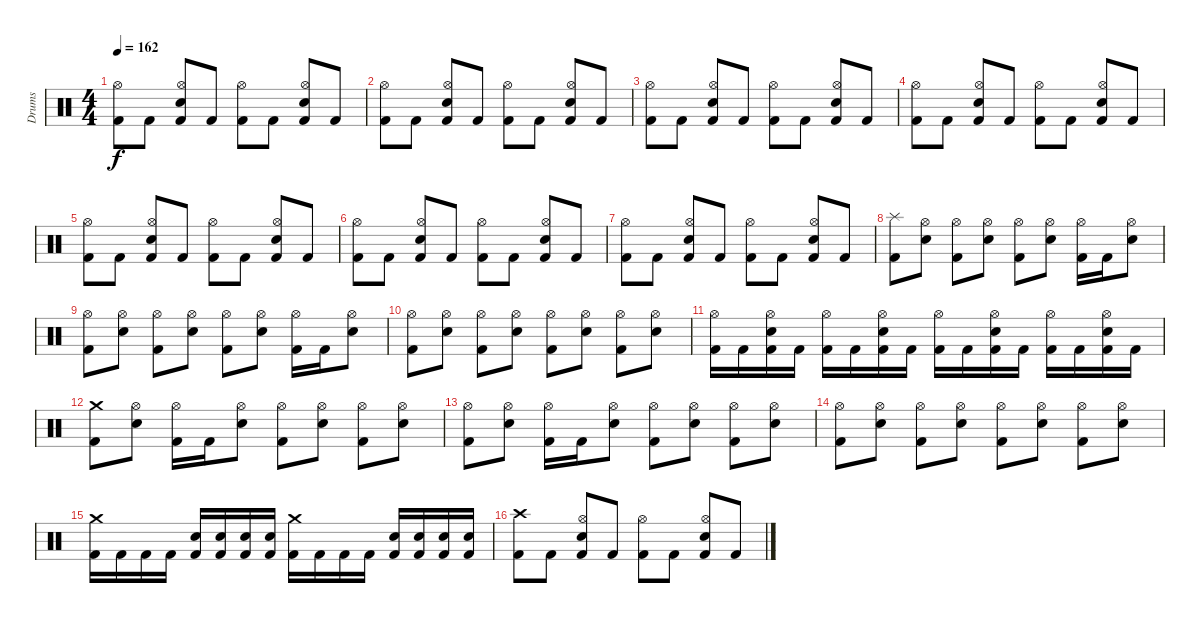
\track ("Drums" "Drums") {instrument percussion}
\staff {score}
\articulation defaults
\ts (4 4)
\tempo 162
\clef neutral
\ks c
("Kick (hit) 2" "Hi-Hat (open)").8{dy f} "Kick (hit) 2".8 ("Kick (hit) 2" "Electric Snare (hit)" "Hi-Hat (open)").8 "Kick (hit) 2".8 ("Kick (hit) 2" "Hi-Hat (open)").8 "Kick (hit) 2".8 ("Kick (hit) 2" "Electric Snare (hit)" "Hi-Hat (open)").8 "Kick (hit) 2".8 |
("Kick (hit) 2" "Hi-Hat (open)").8 "Kick (hit) 2".8 ("Kick (hit) 2" "Electric Snare (hit)" "Hi-Hat (open)").8 "Kick (hit) 2".8 ("Kick (hit) 2" "Hi-Hat (open)").8 "Kick (hit) 2".8 ("Kick (hit) 2" "Electric Snare (hit)" "Hi-Hat (open)").8 "Kick (hit) 2".8 |
("Kick (hit) 2" "Hi-Hat (open)").8 "Kick (hit) 2".8 ("Kick (hit) 2" "Electric Snare (hit)" "Hi-Hat (open)").8 "Kick (hit) 2".8 ("Kick (hit) 2" "Hi-Hat (open)").8 "Kick (hit) 2".8 ("Kick (hit) 2" "Electric Snare (hit)" "Hi-Hat (open)").8 "Kick (hit) 2".8 |
("Kick (hit) 2" "Hi-Hat (open)").8 "Kick (hit) 2".8 ("Kick (hit) 2" "Electric Snare (hit)" "Hi-Hat (open)").8 "Kick (hit) 2".8 ("Kick (hit) 2" "Hi-Hat (open)").8 "Kick (hit) 2".8 ("Kick (hit) 2" "Electric Snare (hit)" "Hi-Hat (open)").8 "Kick (hit) 2".8 |
("Kick (hit) 2" "Hi-Hat (open)").8 "Kick (hit) 2".8 ("Kick (hit) 2" "Electric Snare (hit)" "Hi-Hat (open)").8 "Kick (hit) 2".8 ("Kick (hit) 2" "Hi-Hat (open)").8 "Kick (hit) 2".8 ("Kick (hit) 2" "Electric Snare (hit)" "Hi-Hat (open)").8 "Kick (hit) 2".8 |
("Kick (hit) 2" "Hi-Hat (open)").8 "Kick (hit) 2".8 ("Kick (hit) 2" "Electric Snare (hit)" "Hi-Hat (open)").8 "Kick (hit) 2".8 ("Kick (hit) 2" "Hi-Hat (open)").8 "Kick (hit) 2".8 ("Kick (hit) 2" "Electric Snare (hit)" "Hi-Hat (open)").8 "Kick (hit) 2".8 |
("Kick (hit) 2" "Hi-Hat (open)").8 "Kick (hit) 2".8 ("Kick (hit) 2" "Electric Snare (hit)" "Hi-Hat (open)").8 "Kick (hit) 2".8 ("Kick (hit) 2" "Hi-Hat (open)").8 "Kick (hit) 2".8 ("Kick (hit) 2" "Electric Snare (hit)" "Hi-Hat (open)").8 "Kick (hit) 2".8 |
\section ("" "")
("Kick (hit) 2" "Splash (hit)").8 ("Electric Snare (hit)" "Hi-Hat (open)").8 ("Kick (hit) 2" "Hi-Hat (open)").8 ("Electric Snare (hit)" "Hi-Hat (open)").8 ("Kick (hit) 2" "Hi-Hat (open)").8 ("Electric Snare (hit)" "Hi-Hat (open)").8 ("Kick (hit) 2" "Hi-Hat (open)").16 "Kick (hit) 2".16 ("Electric Snare (hit)" "Hi-Hat (open)").8 |
("Kick (hit) 2" "Hi-Hat (open)").8 ("Electric Snare (hit)" "Hi-Hat (open)").8 ("Kick (hit) 2" "Hi-Hat (open)").8 ("Electric Snare (hit)" "Hi-Hat (open)").8 ("Kick (hit) 2" "Hi-Hat (open)").8 ("Electric Snare (hit)" "Hi-Hat (open)").8 ("Kick (hit) 2" "Hi-Hat (open)").16 "Kick (hit) 2".16 ("Electric Snare (hit)" "Hi-Hat (open)").8 |
("Kick (hit) 2" "Hi-Hat (open)").8 ("Electric Snare (hit)" "Hi-Hat (open)").8 ("Kick (hit) 2" "Hi-Hat (open)").8 ("Electric Snare (hit)" "Hi-Hat (open)").8 ("Kick (hit) 2" "Hi-Hat (open)").8 ("Electric Snare (hit)" "Hi-Hat (open)").8 ("Kick (hit) 2" "Hi-Hat (open)").8 ("Electric Snare (hit)" "Hi-Hat (open)").8 |
("Kick (hit) 2" "Hi-Hat (open)").16 "Kick (hit) 2".16 ("Kick (hit) 2" "Electric Snare (hit)" "Hi-Hat (open)").16 "Kick (hit) 2".16 ("Kick (hit) 2" "Hi-Hat (open)").16 "Kick (hit) 2".16 ("Kick (hit) 2" "Electric Snare (hit)" "Hi-Hat (open)").16 "Kick (hit) 2".16 ("Kick (hit) 2" "Hi-Hat (open)").16 "Kick (hit) 2".16 ("Kick (hit) 2" "Electric Snare (hit)" "Hi-Hat (open)").16 "Kick (hit) 2".16 ("Kick (hit) 2" "Hi-Hat (open)").16 "Kick (hit) 2".16 ("Kick (hit) 2" "Electric Snare (hit)" "Hi-Hat (open)").16 "Kick (hit) 2".16 |
("Kick (hit) 2" "Crash medium (hit)").8 ("Electric Snare (hit)" "Hi-Hat (open)").8 ("Kick (hit) 2" "Hi-Hat (open)").16 "Kick (hit) 2".16 ("Electric Snare (hit)" "Hi-Hat (open)").8 ("Kick (hit) 2" "Hi-Hat (open)").8 ("Electric Snare (hit)" "Hi-Hat (open)").8 ("Kick (hit) 2" "Hi-Hat (open)").8 ("Electric Snare (hit)" "Hi-Hat (open)").8 |
("Kick (hit) 2" "Hi-Hat (open)").8 ("Electric Snare (hit)" "Hi-Hat (open)").8 ("Kick (hit) 2" "Hi-Hat (open)").16 "Kick (hit) 2".16 ("Electric Snare (hit)" "Hi-Hat (open)").8 ("Kick (hit) 2" "Hi-Hat (open)").8 ("Electric Snare (hit)" "Hi-Hat (open)").8 ("Kick (hit) 2" "Hi-Hat (open)").8 ("Electric Snare (hit)" "Hi-Hat (open)").8 |
("Kick (hit) 2" "Hi-Hat (open)").8 ("Electric Snare (hit)" "Hi-Hat (open)").8 ("Kick (hit) 2" "Hi-Hat (open)").8 ("Electric Snare (hit)" "Hi-Hat (open)").8 ("Kick (hit) 2" "Hi-Hat (open)").8 ("Electric Snare (hit)" "Hi-Hat (open)").8 ("Kick (hit) 2" "Hi-Hat (open)").8 ("Electric Snare (hit)" "Hi-Hat (open)").8 |
("Kick (hit) 2" "Crash medium (hit)").16 "Kick (hit) 2".16 "Kick (hit) 2".16 "Kick (hit) 2".16 ("Kick (hit) 2" "Electric Snare (hit)").16 ("Kick (hit) 2" "Electric Snare (hit)").16 ("Kick (hit) 2" "Electric Snare (hit)").16 ("Kick (hit) 2" "Electric Snare (hit)").16 ("Kick (hit) 2" "Crash medium (hit)").16 "Kick (hit) 2".16 "Kick (hit) 2".16 "Kick (hit) 2".16 ("Kick (hit) 2" "Electric Snare (hit)").16 ("Kick (hit) 2" "Electric Snare (hit)").16 ("Kick (hit) 2" "Electric Snare (hit)").16 ("Kick (hit) 2" "Electric Snare (hit)").16 |
\section ("" "")
("Kick (hit) 2" "Crash high (hit)").8 "Kick (hit) 2".8 ("Kick (hit) 2" "Electric Snare (hit)" "Hi-Hat (open)").8 "Kick (hit) 2".8 ("Kick (hit) 2" "Hi-Hat (open)").8 "Kick (hit) 2".8 ("Kick (hit) 2" "Electric Snare (hit)" "Hi-Hat (open)").8 "Kick (hit) 2".8
